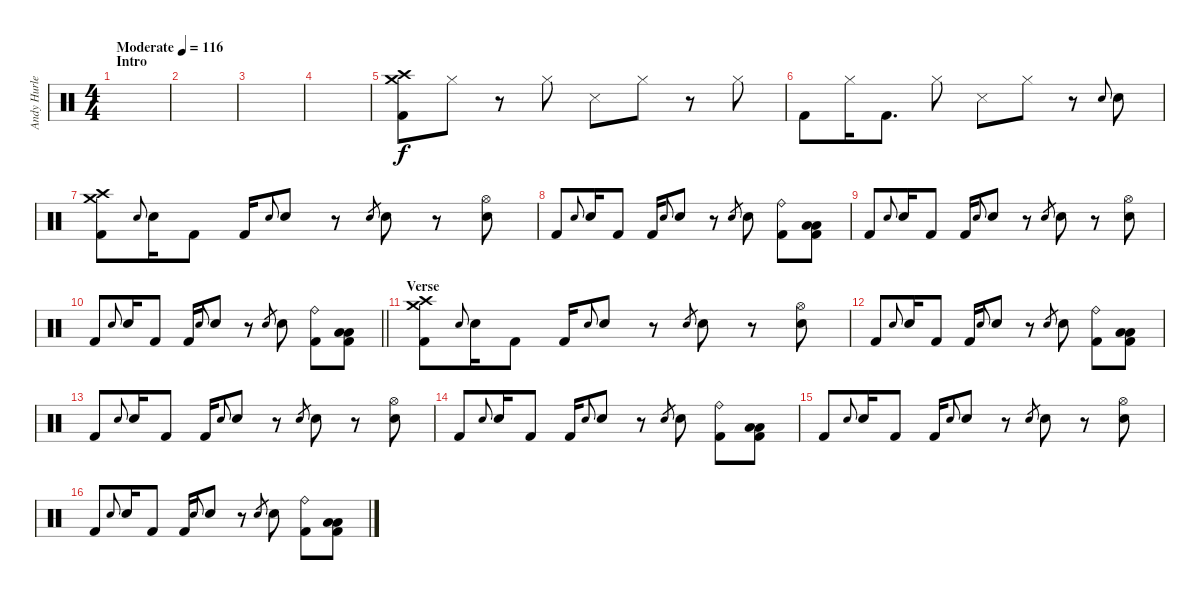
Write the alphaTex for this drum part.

\track ("Andy Hurley" "Andy Hurle") {instrument percussion}
\staff {score}
\articulation defaults
\ts (4 4)
\section ("" "Intro")
\tempo (116 "Moderate")
\clef neutral
\ks c
|
|
|
|
("Crash high (hit)" "Crash medium (hit)" "Kick (hit) 2").8 "Hi-Hat (closed)".8 r.8 "Hi-Hat (closed)".8 "Metronome (hit)".8 "Hi-Hat (closed)".8 r.8 "Hi-Hat (closed)".8 |
"Kick (hit) 2".8 "Hi-Hat (closed)".16 "Kick (hit) 2".8{d} "Hi-Hat (closed)".8 "Metronome (hit)".8 "Hi-Hat (closed)".8 r.8 "Electric Snare (hit)".8{gr onbeat} "Electric Snare (hit)".8 |
("Crash high (hit)" "Crash medium (hit)" "Kick (hit) 2").8 "Electric Snare (hit)".8{gr onbeat} "Electric Snare (hit)".16 "Kick (hit) 2".8 "Kick (hit) 2".16 "Electric Snare (hit)".8{gr onbeat} "Electric Snare (hit)".8 r.8 "Electric Snare (hit)".8{gr} "Electric Snare (hit)".8 r.8 ("Hi-Hat (open)" "Electric Snare (hit)").8 |
"Kick (hit) 2".8 "Electric Snare (hit)".8{gr onbeat} "Electric Snare (hit)".16 "Kick (hit) 2".8 "Kick (hit) 2".16 "Electric Snare (hit)".8{gr onbeat} "Electric Snare (hit)".8 r.8 "Electric Snare (hit)".8{gr} "Electric Snare (hit)".8 ("Ride (bell)" "Kick (hit) 2").8 ("Low Tom (hit)" "Low Floor Tom (hit)" "Kick (hit) 2").8 |
"Kick (hit) 2".8 "Electric Snare (hit)".8{gr onbeat} "Electric Snare (hit)".16 "Kick (hit) 2".8 "Kick (hit) 2".16 "Electric Snare (hit)".8{gr onbeat} "Electric Snare (hit)".8 r.8 "Electric Snare (hit)".8{gr} "Electric Snare (hit)".8 r.8 ("Hi-Hat (open)" "Electric Snare (hit)").8 |
\barLineRight lightlight "Kick (hit) 2".8 "Electric Snare (hit)".8{gr onbeat} "Electric Snare (hit)".16 "Kick (hit) 2".8 "Kick (hit) 2".16 "Electric Snare (hit)".8{gr onbeat} "Electric Snare (hit)".8
r.8 "Electric Snare (hit)".8{gr} "Electric Snare (hit)".8 ("Ride (bell)" "Kick (hit) 2").8 ("Low Tom (hit)" "Low Floor Tom (hit)" "Kick (hit) 2").8 |
\section ("" "Verse")
("Crash high (hit)" "Crash medium (hit)" "Kick (hit) 2").8 "Electric Snare (hit)".8{gr onbeat} "Electric Snare (hit)".16 "Kick (hit) 2".8 "Kick (hit) 2".16 "Electric Snare (hit)".8{gr onbeat} "Electric Snare (hit)".8 r.8 "Electric Snare (hit)".8{gr} "Electric Snare (hit)".8 r.8 ("Hi-Hat (open)" "Electric Snare (hit)").8 |
"Kick (hit) 2".8 "Electric Snare (hit)".8{gr onbeat} "Electric Snare (hit)".16 "Kick (hit) 2".8 "Kick (hit) 2".16 "Electric Snare (hit)".8{gr onbeat} "Electric Snare (hit)".8 r.8 "Electric Snare (hit)".8{gr} "Electric Snare (hit)".8 ("Ride (bell)" "Kick (hit) 2").8 ("Low Tom (hit)" "Low Floor Tom (hit)" "Kick (hit) 2").8 |
"Kick (hit) 2".8 "Electric Snare (hit)".8{gr onbeat} "Electric Snare (hit)".16 "Kick (hit) 2".8 "Kick (hit) 2".16 "Electric Snare (hit)".8{gr onbeat} "Electric Snare (hit)".8 r.8 "Electric Snare (hit)".8{gr} "Electric Snare (hit)".8 r.8 ("Hi-Hat (open)" "Electric Snare (hit)").8 |
"Kick (hit) 2".8 "Electric Snare (hit)".8{gr onbeat} "Electric Snare (hit)".16 "Kick (hit) 2".8 "Kick (hit) 2".16 "Electric Snare (hit)".8{gr onbeat} "Electric Snare (hit)".8 r.8 "Electric Snare (hit)".8{gr} "Electric Snare (hit)".8 ("Ride (bell)" "Kick (hit) 2").8 ("Low Tom (hit)" "Low Floor Tom (hit)" "Kick (hit) 2").8 |
"Kick (hit) 2".8 "Electric Snare (hit)".8{gr onbeat} "Electric Snare (hit)".16 "Kick (hit) 2".8 "Kick (hit) 2".16 "Electric Snare (hit)".8{gr onbeat} "Electric Snare (hit)".8 r.8 "Electric Snare (hit)".8{gr} "Electric Snare (hit)".8 r.8 ("Hi-Hat (open)" "Electric Snare (hit)").8 |
"Kick (hit) 2".8 "Electric Snare (hit)".8{gr onbeat} "Electric Snare (hit)".16 "Kick (hit) 2".8 "Kick (hit) 2".16 "Electric Snare (hit)".8{gr onbeat} "Electric Snare (hit)".8 r.8 "Electric Snare (hit)".8{gr} "Electric Snare (hit)".8 ("Ride (bell)" "Kick (hit) 2").8 ("Low Tom (hit)" "Low Floor Tom (hit)" "Kick (hit) 2").8
